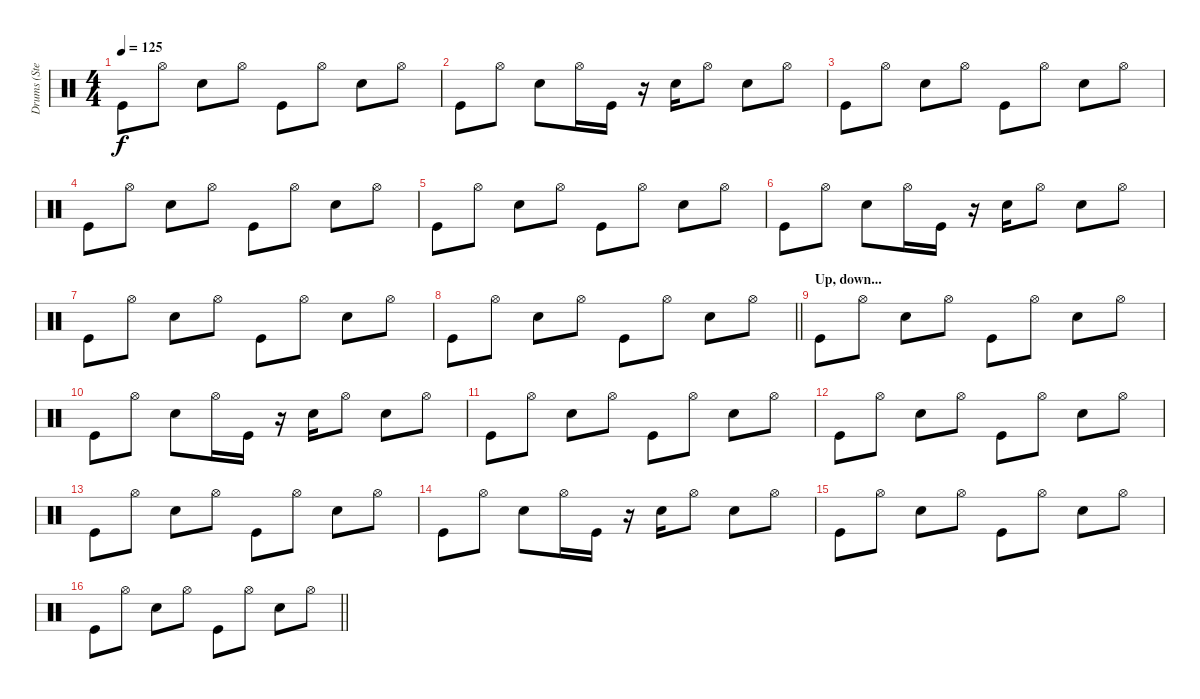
\track ("Drums (Steve)" "Drums (Ste") {instrument percussion}
\staff {score}
\articulation defaults
\ts (4 4)
\tempo 125
\clef neutral
\ks c "Kick (hit)".8{dy f} "Hi-Hat (open)".8 "Electric Snare (hit)".8 "Hi-Hat (open)".8 "Kick (hit)".8 "Hi-Hat (open)".8 "Electric Snare (hit)".8 "Hi-Hat (open)".8
|
"Kick (hit)".8 "Hi-Hat (open)".8 "Electric Snare (hit)".8 "Hi-Hat (open)".16 "Kick (hit)".16 r.16 "Electric Snare (hit)".16 "Hi-Hat (open)".8 "Electric Snare (hit)".8 "Hi-Hat (open)".8 |
"Kick (hit)".8 "Hi-Hat (open)".8 "Electric Snare (hit)".8 "Hi-Hat (open)".8 "Kick (hit)".8 "Hi-Hat (open)".8 "Electric Snare (hit)".8 "Hi-Hat (open)".8 |
"Kick (hit)".8 "Hi-Hat (open)".8 "Electric Snare (hit)".8 "Hi-Hat (open)".8 "Kick (hit)".8 "Hi-Hat (open)".8 "Electric Snare (hit)".8 "Hi-Hat (open)".8 |
"Kick (hit)".8 "Hi-Hat (open)".8 "Electric Snare (hit)".8 "Hi-Hat (open)".8 "Kick (hit)".8 "Hi-Hat (open)".8 "Electric Snare (hit)".8 "Hi-Hat (open)".8 |
"Kick (hit)".8 "Hi-Hat (open)".8 "Electric Snare (hit)".8 "Hi-Hat (open)".16 "Kick (hit)".16 r.16 "Electric Snare (hit)".16 "Hi-Hat (open)".8 "Electric Snare (hit)".8 "Hi-Hat (open)".8 |
"Kick (hit)".8 "Hi-Hat (open)".8 "Electric Snare (hit)".8 "Hi-Hat (open)".8 "Kick (hit)".8 "Hi-Hat (open)".8 "Electric Snare (hit)".8 "Hi-Hat (open)".8 |
\barLineRight lightlight "Kick (hit)".8 "Hi-Hat (open)".8 "Electric Snare (hit)".8 "Hi-Hat (open)".8 "Kick (hit)".8 "Hi-Hat (open)".8 "Electric Snare (hit)".8 "Hi-Hat (open)".8
|
\section ("" "Up, down...")
"Kick (hit)".8 "Hi-Hat (open)".8 "Electric Snare (hit)".8 "Hi-Hat (open)".8 "Kick (hit)".8 "Hi-Hat (open)".8 "Electric Snare (hit)".8 "Hi-Hat (open)".8 |
"Kick (hit)".8 "Hi-Hat (open)".8 "Electric Snare (hit)".8 "Hi-Hat (open)".16 "Kick (hit)".16 r.16 "Electric Snare (hit)".16 "Hi-Hat (open)".8 "Electric Snare (hit)".8 "Hi-Hat (open)".8 |
"Kick (hit)".8 "Hi-Hat (open)".8 "Electric Snare (hit)".8 "Hi-Hat (open)".8 "Kick (hit)".8 "Hi-Hat (open)".8 "Electric Snare (hit)".8 "Hi-Hat (open)".8 |
"Kick (hit)".8 "Hi-Hat (open)".8 "Electric Snare (hit)".8 "Hi-Hat (open)".8 "Kick (hit)".8 "Hi-Hat (open)".8 "Electric Snare (hit)".8 "Hi-Hat (open)".8 |
"Kick (hit)".8 "Hi-Hat (open)".8 "Electric Snare (hit)".8 "Hi-Hat (open)".8 "Kick (hit)".8 "Hi-Hat (open)".8 "Electric Snare (hit)".8 "Hi-Hat (open)".8 |
"Kick (hit)".8 "Hi-Hat (open)".8 "Electric Snare (hit)".8 "Hi-Hat (open)".16 "Kick (hit)".16 r.16 "Electric Snare (hit)".16 "Hi-Hat (open)".8 "Electric Snare (hit)".8 "Hi-Hat (open)".8 |
"Kick (hit)".8 "Hi-Hat (open)".8 "Electric Snare (hit)".8 "Hi-Hat (open)".8 "Kick (hit)".8 "Hi-Hat (open)".8 "Electric Snare (hit)".8 "Hi-Hat (open)".8 |
\barLineRight lightlight "Kick (hit)".8 "Hi-Hat (open)".8 "Electric Snare (hit)".8 "Hi-Hat (open)".8 "Kick (hit)".8 "Hi-Hat (open)".8 "Electric Snare (hit)".8 "Hi-Hat (open)".8
